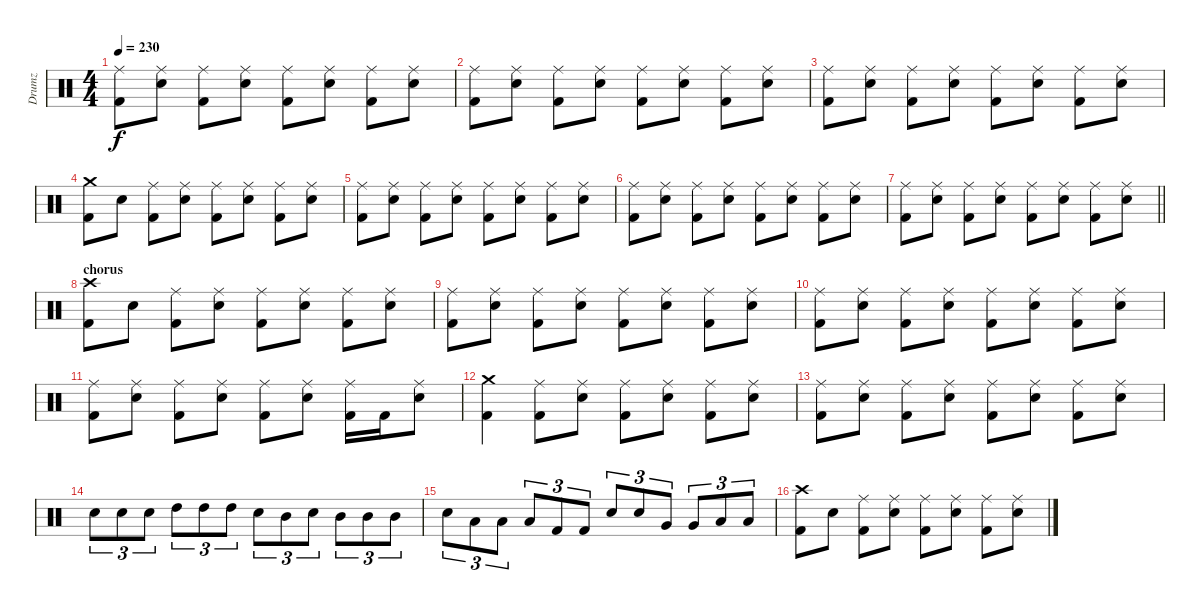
\track ("Drumz" "Drumz") {instrument percussion}
\staff {score}
\articulation defaults
\ts (4 4)
\tempo 230
\clef neutral
\ks c
("Ride (middle)" "Kick (hit) 2").8{dy f} ("Ride (middle)" "Electric Snare (hit)").8 ("Ride (middle)" "Kick (hit) 2").8 ("Ride (middle)" "Electric Snare (hit)").8 ("Ride (middle)" "Kick (hit) 2").8 ("Ride (middle)" "Electric Snare (hit)").8 ("Ride (middle)" "Kick (hit) 2").8 ("Ride (middle)" "Electric Snare (hit)").8 |
("Ride (middle)" "Kick (hit) 2").8 ("Ride (middle)" "Electric Snare (hit)").8 ("Ride (middle)" "Kick (hit) 2").8 ("Ride (middle)" "Electric Snare (hit)").8 ("Ride (middle)" "Kick (hit) 2").8 ("Ride (middle)" "Electric Snare (hit)").8 ("Ride (middle)" "Kick (hit) 2").8 ("Ride (middle)" "Electric Snare (hit)").8 |
("Ride (middle)" "Kick (hit) 2").8 ("Ride (middle)" "Electric Snare (hit)").8 ("Ride (middle)" "Kick (hit) 2").8 ("Ride (middle)" "Electric Snare (hit)").8 ("Ride (middle)" "Kick (hit) 2").8 ("Ride (middle)" "Electric Snare (hit)").8 ("Ride (middle)" "Kick (hit) 2").8 ("Ride (middle)" "Electric Snare (hit)").8 |
("Crash medium (hit)" "Kick (hit) 2").8 "Electric Snare (hit)".8 ("Ride (middle)" "Kick (hit) 2").8 ("Ride (middle)" "Electric Snare (hit)").8 ("Ride (middle)" "Kick (hit) 2").8 ("Ride (middle)" "Electric Snare (hit)").8 ("Ride (middle)" "Kick (hit) 2").8 ("Ride (middle)" "Electric Snare (hit)").8 |
("Ride (middle)" "Kick (hit) 2").8 ("Ride (middle)" "Electric Snare (hit)").8 ("Ride (middle)" "Kick (hit) 2").8 ("Ride (middle)" "Electric Snare (hit)").8 ("Ride (middle)" "Kick (hit) 2").8 ("Ride (middle)" "Electric Snare (hit)").8 ("Ride (middle)" "Kick (hit) 2").8 ("Ride (middle)" "Electric Snare (hit)").8 |
("Ride (middle)" "Kick (hit) 2").8 ("Ride (middle)" "Electric Snare (hit)").8 ("Ride (middle)" "Kick (hit) 2").8 ("Ride (middle)" "Electric Snare (hit)").8 ("Ride (middle)" "Kick (hit) 2").8 ("Ride (middle)" "Electric Snare (hit)").8 ("Ride (middle)" "Kick (hit) 2").8 ("Ride (middle)" "Electric Snare (hit)").8 |
\barLineRight lightlight
("Ride (middle)" "Kick (hit) 2").8 ("Ride (middle)" "Electric Snare (hit)").8 ("Ride (middle)" "Kick (hit) 2").8 ("Ride (middle)" "Electric Snare (hit)").8 ("Ride (middle)" "Kick (hit) 2").8 ("Ride (middle)" "Electric Snare (hit)").8 ("Ride (middle)" "Kick (hit) 2").8 ("Ride (middle)" "Electric Snare (hit)").8 |
\section ("" "chorus")
("Crash high (hit)" "Kick (hit) 2").8 "Electric Snare (hit)".8 ("Ride (middle)" "Kick (hit) 2").8 ("Ride (middle)" "Electric Snare (hit)").8 ("Ride (middle)" "Kick (hit) 2").8 ("Ride (middle)" "Electric Snare (hit)").8 ("Ride (middle)" "Kick (hit) 2").8 ("Ride (middle)" "Electric Snare (hit)").8 |
("Ride (middle)" "Kick (hit) 2").8 ("Ride (middle)" "Electric Snare (hit)").8 ("Ride (middle)" "Kick (hit) 2").8 ("Ride (middle)" "Electric Snare (hit)").8 ("Ride (middle)" "Kick (hit) 2").8 ("Ride (middle)" "Electric Snare (hit)").8 ("Ride (middle)" "Kick (hit) 2").8 ("Ride (middle)" "Electric Snare (hit)").8 |
("Ride (middle)" "Kick (hit) 2").8 ("Ride (middle)" "Electric Snare (hit)").8 ("Ride (middle)" "Kick (hit) 2").8 ("Ride (middle)" "Electric Snare (hit)").8 ("Ride (middle)" "Kick (hit) 2").8 ("Ride (middle)" "Electric Snare (hit)").8 ("Ride (middle)" "Kick (hit) 2").8 ("Ride (middle)" "Electric Snare (hit)").8 |
("Ride (middle)" "Kick (hit) 2").8 ("Ride (middle)" "Electric Snare (hit)").8 ("Ride (middle)" "Kick (hit) 2").8 ("Ride (middle)" "Electric Snare (hit)").8 ("Ride (middle)" "Kick (hit) 2").8 ("Ride (middle)" "Electric Snare (hit)").8 ("Ride (middle)" "Kick (hit) 2").16 "Kick (hit) 2".16 ("Ride (middle)" "Electric Snare (hit)").8 |
("Crash medium (hit)" "Kick (hit) 2").4 ("Ride (middle)" "Kick (hit) 2").8 ("Ride (middle)" "Electric Snare (hit)").8 ("Ride (middle)" "Kick (hit) 2").8 ("Ride (middle)" "Electric Snare (hit)").8 ("Ride (middle)" "Kick (hit) 2").8 ("Ride (middle)" "Electric Snare (hit)").8 |
("Ride (middle)" "Kick (hit) 2").8 ("Ride (middle)" "Electric Snare (hit)").8 ("Ride (middle)" "Kick (hit) 2").8 ("Ride (middle)" "Electric Snare (hit)").8 ("Ride (middle)" "Kick (hit) 2").8 ("Ride (middle)" "Electric Snare (hit)").8 ("Ride (middle)" "Kick (hit) 2").8 ("Ride (middle)" "Electric Snare (hit)").8 |
"Electric Snare (hit)".8{tu (3 2)} "Electric Snare (hit)".8{tu (3 2)} "Electric Snare (hit)".8{tu (3 2)} "High Tom (hit)".8{tu (3 2)} "High Tom (hit)".8{tu (3 2)} "High Tom (hit)".8{tu (3 2)} "Electric Snare (hit)".8{tu (3 2)} "Mid Tom (hit)".8{tu (3 2)} "Electric Snare (hit)".8{tu (3 2)} "Mid Tom (hit)".8{tu (3 2)} "Mid Tom (hit)".8{tu (3 2)} "Mid Tom (hit)".8{tu (3 2)} |
"Electric Snare (hit)".8{tu (3 2)} "Low Tom (hit)".8{tu (3 2)} "Low Tom (hit)".8{tu (3 2)} "Low Tom (hit)".8{tu (3 2)} "Kick (hit) 2".8{tu (3 2)} "Kick (hit) 2".8{tu (3 2)} "Electric Snare (hit)".8{tu (3 2)} "Electric Snare (hit)".8{tu (3 2)} "Very Low Tom (hit)".8{tu (3 2)} "Very Low Tom (hit)".8{tu (3 2)} "Low Floor Tom (hit)".8{tu (3 2)} "Low Floor Tom (hit)".8{tu (3 2)} |
("Crash high (hit)" "Kick (hit) 2").8 "Electric Snare (hit)".8 ("Ride (middle)" "Kick (hit) 2").8 ("Ride (middle)" "Electric Snare (hit)").8 ("Ride (middle)" "Kick (hit) 2").8 ("Ride (middle)" "Electric Snare (hit)").8 ("Ride (middle)" "Kick (hit) 2").8 ("Ride (middle)" "Electric Snare (hit)").8
